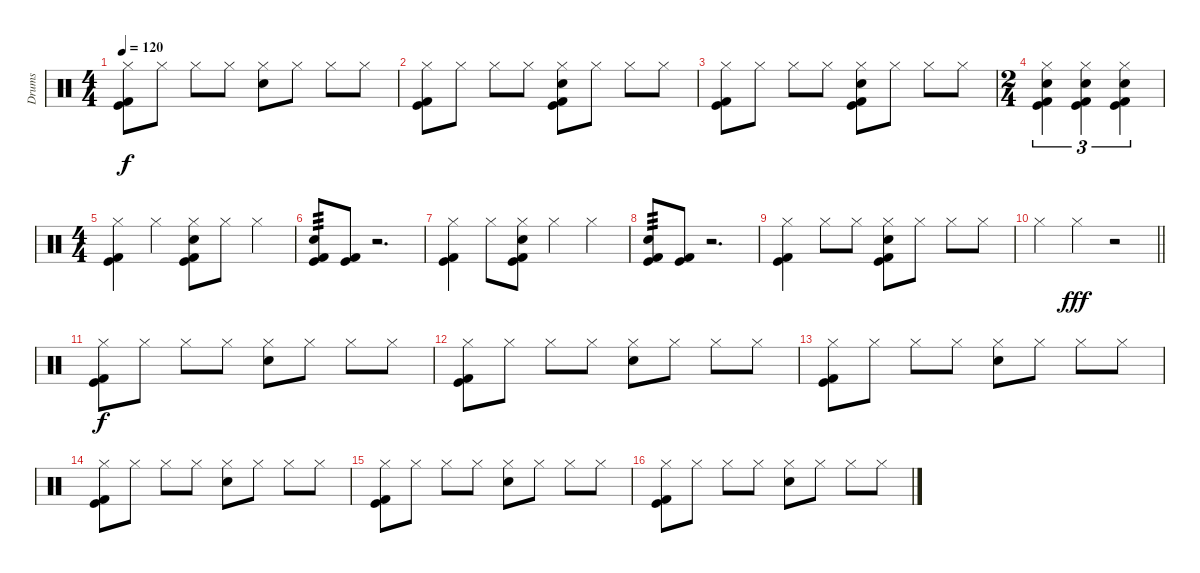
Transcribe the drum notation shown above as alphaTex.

\track ("Drums" "Drums") {instrument percussion}
\staff {score}
\articulation defaults
\ts (4 4)
\tempo 120
\clef neutral
\ks c
("Hi-Hat (closed)" "Kick (hit) 2" "Kick (hit)").8{dy f} "Hi-Hat (closed)".8 "Hi-Hat (closed)".8 "Hi-Hat (closed)".8 ("Hi-Hat (closed)" "Snare (hit) 2").8 "Hi-Hat (closed)".8 "Hi-Hat (closed)".8 "Hi-Hat (closed)".8 |
("Hi-Hat (closed)" "Kick (hit) 2" "Kick (hit)").8 "Hi-Hat (closed)".8 "Hi-Hat (closed)".8 "Hi-Hat (closed)".8 ("Hi-Hat (closed)" "Snare (hit) 2" "Kick (hit) 2" "Kick (hit)").8 "Hi-Hat (closed)".8 "Hi-Hat (closed)".8 "Hi-Hat (closed)".8 |
("Hi-Hat (closed)" "Kick (hit) 2" "Kick (hit)").8 "Hi-Hat (closed)".8 "Hi-Hat (closed)".8 "Hi-Hat (closed)".8 ("Hi-Hat (closed)" "Snare (hit) 2" "Kick (hit) 2" "Kick (hit)").8 "Hi-Hat (closed)".8 "Hi-Hat (closed)".8 "Hi-Hat (closed)".8 |
\ts (2 4)
("Hi-Hat (closed)" "Snare (hit) 2" "Kick (hit) 2" "Kick (hit)").4{tu (3 2)} ("Hi-Hat (closed)" "Snare (hit) 2" "Kick (hit) 2" "Kick (hit)").4{tu (3 2)} ("Hi-Hat (closed)" "Snare (hit) 2" "Kick (hit) 2" "Kick (hit)").4{tu (3 2)} |
\ts (4 4)
("Hi-Hat (closed)" "Kick (hit) 2" "Kick (hit)").4 "Hi-Hat (closed)".4 ("Hi-Hat (closed)" "Snare (hit) 2" "Kick (hit) 2" "Kick (hit)").8 "Hi-Hat (closed)".8 "Hi-Hat (closed)".4 |
("Snare (hit) 2" "Kick (hit) 2" "Kick (hit)").8{tp 3} ("Kick (hit) 2" "Kick (hit)").8 r.2{d} |
("Hi-Hat (closed)" "Kick (hit) 2" "Kick (hit)").4 "Hi-Hat (closed)".8 ("Hi-Hat (closed)" "Snare (hit) 2" "Kick (hit) 2" "Kick (hit)").8 "Hi-Hat (closed)".4 "Hi-Hat (closed)".4 |
("Snare (hit) 2" "Kick (hit) 2" "Kick (hit)").8{tp 3} ("Kick (hit) 2" "Kick (hit)").8 r.2{d} |
("Hi-Hat (closed)" "Kick (hit) 2" "Kick (hit)").4 "Hi-Hat (closed)".8 "Hi-Hat (closed)".8 ("Hi-Hat (closed)" "Snare (hit) 2" "Kick (hit) 2" "Kick (hit)").8 "Hi-Hat (closed)".8 "Hi-Hat (closed)".8 "Hi-Hat (closed)".8 |
\barLineRight lightlight "Hi-Hat (closed)".4 "Hi-Hat (closed)".4{dy fff}
r.2 |
("Hi-Hat (closed)" "Kick (hit) 2" "Kick (hit)").8{dy f} "Hi-Hat (closed)".8 "Hi-Hat (closed)".8 "Hi-Hat (closed)".8 ("Hi-Hat (closed)" "Snare (hit) 2").8 "Hi-Hat (closed)".8 "Hi-Hat (closed)".8 "Hi-Hat (closed)".8 |
("Hi-Hat (closed)" "Kick (hit) 2" "Kick (hit)").8 "Hi-Hat (closed)".8 "Hi-Hat (closed)".8 "Hi-Hat (closed)".8 ("Hi-Hat (closed)" "Snare (hit) 2").8 "Hi-Hat (closed)".8 "Hi-Hat (closed)".8 "Hi-Hat (closed)".8 |
("Hi-Hat (closed)" "Kick (hit) 2" "Kick (hit)").8 "Hi-Hat (closed)".8 "Hi-Hat (closed)".8 "Hi-Hat (closed)".8 ("Hi-Hat (closed)" "Snare (hit) 2").8 "Hi-Hat (closed)".8 "Hi-Hat (closed)".8 "Hi-Hat (closed)".8 |
("Hi-Hat (closed)" "Kick (hit) 2" "Kick (hit)").8 "Hi-Hat (closed)".8 "Hi-Hat (closed)".8 "Hi-Hat (closed)".8 ("Hi-Hat (closed)" "Snare (hit) 2").8 "Hi-Hat (closed)".8 "Hi-Hat (closed)".8 "Hi-Hat (closed)".8 |
("Hi-Hat (closed)" "Kick (hit) 2" "Kick (hit)").8 "Hi-Hat (closed)".8 "Hi-Hat (closed)".8 "Hi-Hat (closed)".8 ("Hi-Hat (closed)" "Snare (hit) 2").8 "Hi-Hat (closed)".8 "Hi-Hat (closed)".8 "Hi-Hat (closed)".8 |
("Hi-Hat (closed)" "Kick (hit) 2" "Kick (hit)").8 "Hi-Hat (closed)".8 "Hi-Hat (closed)".8 "Hi-Hat (closed)".8 ("Hi-Hat (closed)" "Snare (hit) 2").8 "Hi-Hat (closed)".8 "Hi-Hat (closed)".8 "Hi-Hat (closed)".8
